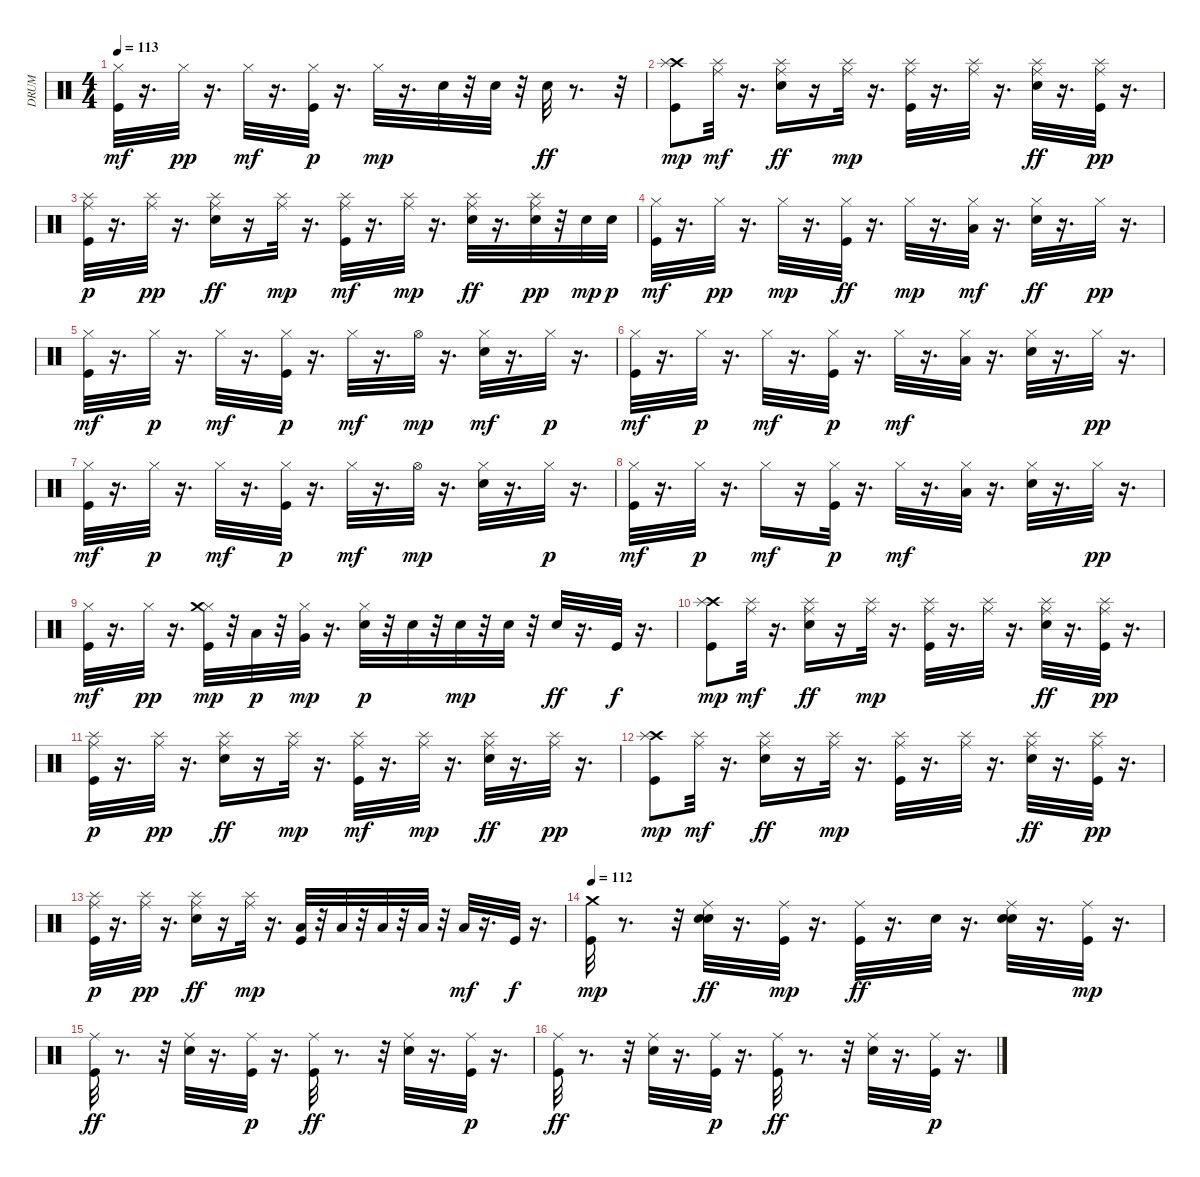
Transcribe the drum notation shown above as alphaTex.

\track ("DRUM" "DRUM") {instrument percussion}
\staff {score}
\articulation defaults
\ts (4 4)
\tempo 113
\clef neutral
\ks c
("Kick (hit)" "Hi-Hat (closed)").32{dy mf} r.16{d} "Hi-Hat (closed)".32{dy pp} r.16{d} "Hi-Hat (closed)".32{dy mf} r.16{d} ("Kick (hit)" "Hi-Hat (closed)").32{dy p} r.16{d} "Hi-Hat (closed)".32{dy mp} r.16{d} "Snare (hit) 2".32 r.32 "Snare (hit) 2".32 r.32 "Snare (hit) 2".32{dy ff} r.8{d} r.32 |
("Kick (hit)" "Crash high (hit)" "Splash (hit)").8{dy mp} ("Splash (hit)" "Ride (middle)").32{dy mf} r.16{d} ("Splash (hit)" "Ride (middle)" "Snare (hit) 2").16{dy ff} r.16 ("Splash (hit)" "Ride (middle)").32{dy mp} r.16{d} ("Splash (hit)" "Kick (hit)" "Ride (middle)").32 r.16{d} ("Splash (hit)" "Ride (middle)").32 r.16{d} ("Ride (middle)" "Splash (hit)" "Snare (hit) 2").32{dy ff} r.16{d} ("Ride (middle)" "Kick (hit)" "Splash (hit)").32{dy pp} r.16{d} |
("Kick (hit)" "Ride (middle)" "Splash (hit)").32{dy p} r.16{d} ("Ride (middle)" "Splash (hit)").32{dy pp} r.16{d} ("Splash (hit)" "Ride (middle)" "Snare (hit) 2").16{dy ff} r.16 ("Splash (hit)" "Ride (middle)").32{dy mp} r.16{d} ("Splash (hit)" "Kick (hit)" "Ride (middle)").32{dy mf} r.16{d} ("Splash (hit)" "Ride (middle)").32{dy mp} r.16{d} ("Splash (hit)" "Ride (middle)" "Snare (hit) 2").32{dy ff} r.16{d} ("Ride (middle)" "Snare (hit) 2" "Splash (hit)").32{dy pp} r.32 "Snare (hit) 2".32{dy mp} "Snare (hit) 2".32{dy p} |
("Kick (hit)" "Hi-Hat (closed)").32{dy mf} r.16{d} "Hi-Hat (closed)".32{dy pp} r.16{d} "Hi-Hat (closed)".32{dy mp} r.16{d} ("Hi-Hat (closed)" "Kick (hit)").32{dy ff} r.16{d} "Hi-Hat (closed)".32{dy mp} r.16{d} ("Hi-Hat (closed)" "Low Tom (hit)").32{dy mf} r.16{d} ("Hi-Hat (closed)" "Snare (hit) 2").32{dy ff} r.16{d} "Hi-Hat (closed)".32{dy pp} r.16{d} |
("Kick (hit)" "Hi-Hat (closed)").32{dy mf} r.16{d} "Hi-Hat (closed)".32{dy p} r.16{d} "Hi-Hat (closed)".32{dy mf} r.16{d} ("Kick (hit)" "Hi-Hat (closed)").32{dy p} r.16{d} "Hi-Hat (closed)".32{dy mf} r.16{d} "Hi-Hat (open)".32{dy mp} r.16{d} ("Snare (hit) 2" "Hi-Hat (closed)").32{dy mf} r.16{d} "Hi-Hat (closed)".32{dy p} r.16{d} |
("Kick (hit)" "Hi-Hat (closed)").32{dy mf} r.16{d} "Hi-Hat (closed)".32{dy p} r.16{d} "Hi-Hat (closed)".32{dy mf} r.16{d} ("Kick (hit)" "Hi-Hat (closed)").32{dy p} r.16{d} "Hi-Hat (closed)".32{dy mf} r.16{d} ("Hi-Hat (closed)" "Low Tom (hit)").32 r.16{d} ("Snare (hit) 2" "Hi-Hat (closed)").32 r.16{d} "Hi-Hat (closed)".32{dy pp} r.16{d} |
("Kick (hit)" "Hi-Hat (closed)").32{dy mf} r.16{d} "Hi-Hat (closed)".32{dy p} r.16{d} "Hi-Hat (closed)".32{dy mf} r.16{d} ("Kick (hit)" "Hi-Hat (closed)").32{dy p} r.16{d} "Hi-Hat (closed)".32{dy mf} r.16{d} "Hi-Hat (open)".32{dy mp} r.16{d} ("Snare (hit) 2" "Hi-Hat (closed)").32 r.16{d} "Hi-Hat (closed)".32{dy p} r.16{d} |
("Kick (hit)" "Hi-Hat (closed)").32{dy mf} r.16{d} "Hi-Hat (closed)".32{dy p} r.16{d} "Hi-Hat (closed)".16{dy mf} r.16 ("Kick (hit)" "Hi-Hat (closed)").32{dy p} r.16{d} "Hi-Hat (closed)".32{dy mf} r.16{d} ("Hi-Hat (closed)" "Low Tom (hit)").32 r.16{d} ("Snare (hit) 2" "Hi-Hat (closed)").32 r.16{d} "Hi-Hat (closed)".32{dy pp} r.16{d} |
("Kick (hit)" "Hi-Hat (closed)").32{dy mf} r.16{d} "Hi-Hat (closed)".32{dy pp} r.16{d} ("Hi-Hat (closed)" "Kick (hit)" "Crash medium (hit)").32{dy mp} r.32 "Low Tom (hit)".32{dy p} r.32 ("Hi-Hat (closed)" "Very Low Tom (hit)").32{dy mp} r.16{d} ("Hi-Hat (closed)" "Snare (hit) 2").32{dy p} r.32 "Snare (hit) 2".32 r.32 "Snare (hit) 2".32{dy mp} r.32 "Snare (hit) 2".32 r.32 "Snare (hit) 2".32{dy ff} r.16{d} "Kick (hit)".32{dy f} r.16{d} |
("Kick (hit)" "Crash high (hit)" "Splash (hit)").8{dy mp} ("Splash (hit)" "Ride (middle)").32{dy mf} r.16{d} ("Splash (hit)" "Ride (middle)" "Snare (hit) 2").16{dy ff} r.16 ("Splash (hit)" "Ride (middle)").32{dy mp} r.16{d} ("Splash (hit)" "Kick (hit)" "Ride (middle)").32 r.16{d} ("Splash (hit)" "Ride (middle)").32 r.16{d} ("Ride (middle)" "Splash (hit)" "Snare (hit) 2").32{dy ff} r.16{d} ("Ride (middle)" "Kick (hit)" "Splash (hit)").32{dy pp} r.16{d} |
("Kick (hit)" "Ride (middle)" "Splash (hit)").32{dy p} r.16{d} ("Ride (middle)" "Splash (hit)").32{dy pp} r.16{d} ("Splash (hit)" "Ride (middle)" "Snare (hit) 2").16{dy ff} r.16 ("Splash (hit)" "Ride (middle)").32{dy mp} r.16{d} ("Splash (hit)" "Kick (hit)" "Ride (middle)").32{dy mf} r.16{d} ("Splash (hit)" "Ride (middle)").32{dy mp} r.16{d} ("Splash (hit)" "Ride (middle)" "Snare (hit) 2").32{dy ff} r.16{d} ("Ride (middle)" "Splash (hit)").32{dy pp} r.16{d} |
("Kick (hit)" "Crash high (hit)" "Splash (hit)").8{dy mp} ("Splash (hit)" "Ride (middle)").32{dy mf} r.16{d} ("Splash (hit)" "Ride (middle)" "Snare (hit) 2").16{dy ff} r.16 ("Splash (hit)" "Ride (middle)").32{dy mp} r.16{d} ("Splash (hit)" "Kick (hit)" "Ride (middle)").32 r.16{d} ("Splash (hit)" "Ride (middle)").32 r.16{d} ("Ride (middle)" "Splash (hit)" "Snare (hit) 2").32{dy ff} r.16{d} ("Ride (middle)" "Kick (hit)" "Splash (hit)").32{dy pp} r.16{d} |
("Kick (hit)" "Ride (middle)" "Splash (hit)").32{dy p} r.16{d} ("Ride (middle)" "Splash (hit)").32{dy pp} r.16{d} ("Splash (hit)" "Ride (middle)" "Snare (hit) 2").16{dy ff} r.16 ("Splash (hit)" "Ride (middle)").32{dy mp} r.16{d} ("Kick (hit)" "Low Tom (hit)").32 r.32 "Low Tom (hit)".32 r.32 "Low Tom (hit)".32 r.32 "Low Tom (hit)".32 r.32 "Low Tom (hit)".32{dy mf} r.16{d} "Kick (hit)".32{dy f} r.16{d} |
\tempo 112
("Kick (hit)" "Crash medium (hit)").32{dy mp} r.8{d} r.32 ("Ride (middle)" "Snare (hit) 2" "Hand Clap (hit)").32{dy ff} r.16{d} ("Kick (hit)" "Ride (middle)").32{dy mp} r.16{d} ("Ride (middle)" "Kick (hit)").32{dy ff} r.16{d} "Hand Clap (hit)".32 r.16{d} ("Ride (middle)" "Snare (hit) 2" "Hand Clap (hit)").32 r.16{d} ("Kick (hit)" "Ride (middle)").32{dy mp} r.16{d} |
("Ride (middle)" "Kick (hit)").32{dy ff} r.8{d} r.32 ("Ride (middle)" "Snare (hit) 2").32 r.16{d} ("Kick (hit)" "Ride (middle)").32{dy p} r.16{d} ("Ride (middle)" "Kick (hit)").32{dy ff} r.8{d} r.32 ("Ride (middle)" "Snare (hit) 2").32 r.16{d} ("Kick (hit)" "Ride (middle)").32{dy p} r.16{d} |
("Ride (middle)" "Kick (hit)").32{dy ff} r.8{d} r.32 ("Ride (middle)" "Snare (hit) 2").32 r.16{d} ("Kick (hit)" "Ride (middle)").32{dy p} r.16{d} ("Ride (middle)" "Kick (hit)").32{dy ff} r.8{d} r.32 ("Ride (middle)" "Snare (hit) 2").32 r.16{d} ("Kick (hit)" "Ride (middle)").32{dy p} r.16{d}
